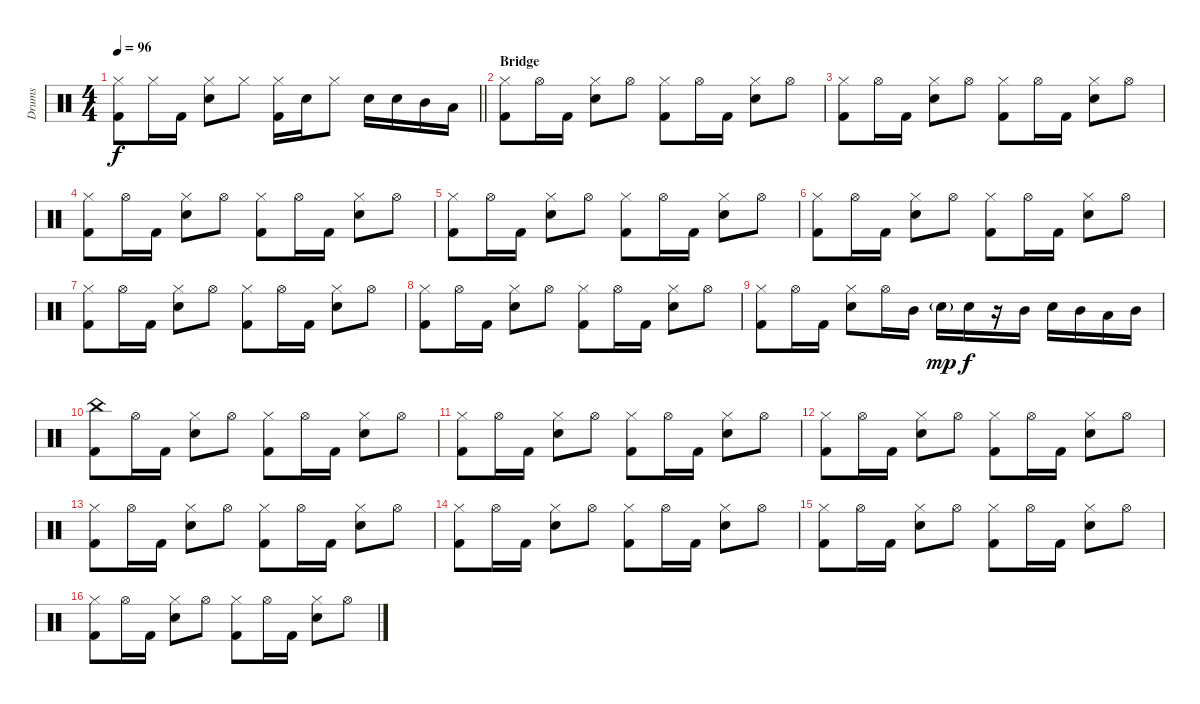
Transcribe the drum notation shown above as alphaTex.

\track ("Drums" "Drums") {instrument percussion}
\staff {score}
\articulation defaults
\ts (4 4)
\tempo 96
\clef neutral
\barLineRight lightlight
\ks c
("Hi-Hat (closed)" "Kick (hit) 2").8{dy f} "Hi-Hat (closed)".16 "Kick (hit) 2".16 ("Hi-Hat (closed)" "Electric Snare (hit)").8 "Hi-Hat (closed)".8 ("Hi-Hat (closed)" "Kick (hit) 2").16 "Electric Snare (hit)".16 "Hi-Hat (closed)".8 "Electric Snare (hit)".16 "Electric Snare (hit)".16 "Mid Tom (hit)".16 "Low Tom (hit)".16 |
\section ("" "Bridge")
("Hi-Hat (closed)" "Kick (hit) 2").8 "Hi-Hat (open)".16 "Kick (hit) 2".16 ("Hi-Hat (closed)" "Electric Snare (hit)").8 "Hi-Hat (open)".8 ("Hi-Hat (closed)" "Kick (hit) 2").8 "Hi-Hat (open)".16 "Kick (hit) 2".16 ("Hi-Hat (closed)" "Electric Snare (hit)").8 "Hi-Hat (open)".8 |
("Hi-Hat (closed)" "Kick (hit) 2").8 "Hi-Hat (open)".16 "Kick (hit) 2".16 ("Hi-Hat (closed)" "Electric Snare (hit)").8 "Hi-Hat (open)".8 ("Hi-Hat (closed)" "Kick (hit) 2").8 "Hi-Hat (open)".16 "Kick (hit) 2".16 ("Hi-Hat (closed)" "Electric Snare (hit)").8 "Hi-Hat (open)".8 |
("Hi-Hat (closed)" "Kick (hit) 2").8 "Hi-Hat (open)".16 "Kick (hit) 2".16 ("Hi-Hat (closed)" "Electric Snare (hit)").8 "Hi-Hat (open)".8 ("Hi-Hat (closed)" "Kick (hit) 2").8 "Hi-Hat (open)".16 "Kick (hit) 2".16 ("Hi-Hat (closed)" "Electric Snare (hit)").8 "Hi-Hat (open)".8 |
("Hi-Hat (closed)" "Kick (hit) 2").8 "Hi-Hat (open)".16 "Kick (hit) 2".16 ("Hi-Hat (closed)" "Electric Snare (hit)").8 "Hi-Hat (open)".8 ("Hi-Hat (closed)" "Kick (hit) 2").8 "Hi-Hat (open)".16 "Kick (hit) 2".16 ("Hi-Hat (closed)" "Electric Snare (hit)").8 "Hi-Hat (open)".8 |
("Hi-Hat (closed)" "Kick (hit) 2").8 "Hi-Hat (open)".16 "Kick (hit) 2".16 ("Hi-Hat (closed)" "Electric Snare (hit)").8 "Hi-Hat (open)".8 ("Hi-Hat (closed)" "Kick (hit) 2").8 "Hi-Hat (open)".16 "Kick (hit) 2".16 ("Hi-Hat (closed)" "Electric Snare (hit)").8 "Hi-Hat (open)".8 |
("Hi-Hat (closed)" "Kick (hit) 2").8 "Hi-Hat (open)".16 "Kick (hit) 2".16 ("Hi-Hat (closed)" "Electric Snare (hit)").8 "Hi-Hat (open)".8 ("Hi-Hat (closed)" "Kick (hit) 2").8 "Hi-Hat (open)".16 "Kick (hit) 2".16 ("Hi-Hat (closed)" "Electric Snare (hit)").8 "Hi-Hat (open)".8 |
("Hi-Hat (closed)" "Kick (hit) 2").8 "Hi-Hat (open)".16 "Kick (hit) 2".16 ("Hi-Hat (closed)" "Electric Snare (hit)").8 "Hi-Hat (open)".8 ("Hi-Hat (closed)" "Kick (hit) 2").8 "Hi-Hat (open)".16 "Kick (hit) 2".16 ("Hi-Hat (closed)" "Electric Snare (hit)").8 "Hi-Hat (open)".8 |
("Hi-Hat (closed)" "Kick (hit) 2").8 "Hi-Hat (open)".16 "Kick (hit) 2".16 ("Hi-Hat (closed)" "Electric Snare (hit)").8 "Hi-Hat (open)".16 "Mid Tom (hit)".16 "Electric Snare (hit)"{g}.16{dy mp} "Electric Snare (hit)".16{dy f} r.16 "Mid Tom (hit)".16 "Electric Snare (hit)".16 "Mid Tom (hit)".16 "Low Tom (hit)".16 "Mid Tom (hit)".16 |
("China (hit)" "Kick (hit) 2").8 "Hi-Hat (open)".16 "Kick (hit) 2".16 ("Hi-Hat (closed)" "Electric Snare (hit)").8 "Hi-Hat (open)".8 ("Hi-Hat (closed)" "Kick (hit) 2").8 "Hi-Hat (open)".16 "Kick (hit) 2".16 ("Hi-Hat (closed)" "Electric Snare (hit)").8 "Hi-Hat (open)".8 |
("Hi-Hat (closed)" "Kick (hit) 2").8 "Hi-Hat (open)".16 "Kick (hit) 2".16 ("Hi-Hat (closed)" "Electric Snare (hit)").8 "Hi-Hat (open)".8 ("Hi-Hat (closed)" "Kick (hit) 2").8 "Hi-Hat (open)".16 "Kick (hit) 2".16 ("Hi-Hat (closed)" "Electric Snare (hit)").8 "Hi-Hat (open)".8 |
("Hi-Hat (closed)" "Kick (hit) 2").8 "Hi-Hat (open)".16 "Kick (hit) 2".16 ("Hi-Hat (closed)" "Electric Snare (hit)").8 "Hi-Hat (open)".8 ("Hi-Hat (closed)" "Kick (hit) 2").8 "Hi-Hat (open)".16 "Kick (hit) 2".16 ("Hi-Hat (closed)" "Electric Snare (hit)").8 "Hi-Hat (open)".8 |
("Hi-Hat (closed)" "Kick (hit) 2").8 "Hi-Hat (open)".16 "Kick (hit) 2".16 ("Hi-Hat (closed)" "Electric Snare (hit)").8 "Hi-Hat (open)".8 ("Hi-Hat (closed)" "Kick (hit) 2").8 "Hi-Hat (open)".16 "Kick (hit) 2".16 ("Hi-Hat (closed)" "Electric Snare (hit)").8 "Hi-Hat (open)".8 |
("Hi-Hat (closed)" "Kick (hit) 2").8 "Hi-Hat (open)".16 "Kick (hit) 2".16 ("Hi-Hat (closed)" "Electric Snare (hit)").8 "Hi-Hat (open)".8 ("Hi-Hat (closed)" "Kick (hit) 2").8 "Hi-Hat (open)".16 "Kick (hit) 2".16 ("Hi-Hat (closed)" "Electric Snare (hit)").8 "Hi-Hat (open)".8 |
("Hi-Hat (closed)" "Kick (hit) 2").8 "Hi-Hat (open)".16 "Kick (hit) 2".16 ("Hi-Hat (closed)" "Electric Snare (hit)").8 "Hi-Hat (open)".8 ("Hi-Hat (closed)" "Kick (hit) 2").8 "Hi-Hat (open)".16 "Kick (hit) 2".16 ("Hi-Hat (closed)" "Electric Snare (hit)").8 "Hi-Hat (open)".8 |
("Hi-Hat (closed)" "Kick (hit) 2").8 "Hi-Hat (open)".16 "Kick (hit) 2".16 ("Hi-Hat (closed)" "Electric Snare (hit)").8 "Hi-Hat (open)".8 ("Hi-Hat (closed)" "Kick (hit) 2").8 "Hi-Hat (open)".16 "Kick (hit) 2".16 ("Hi-Hat (closed)" "Electric Snare (hit)").8 "Hi-Hat (open)".8
